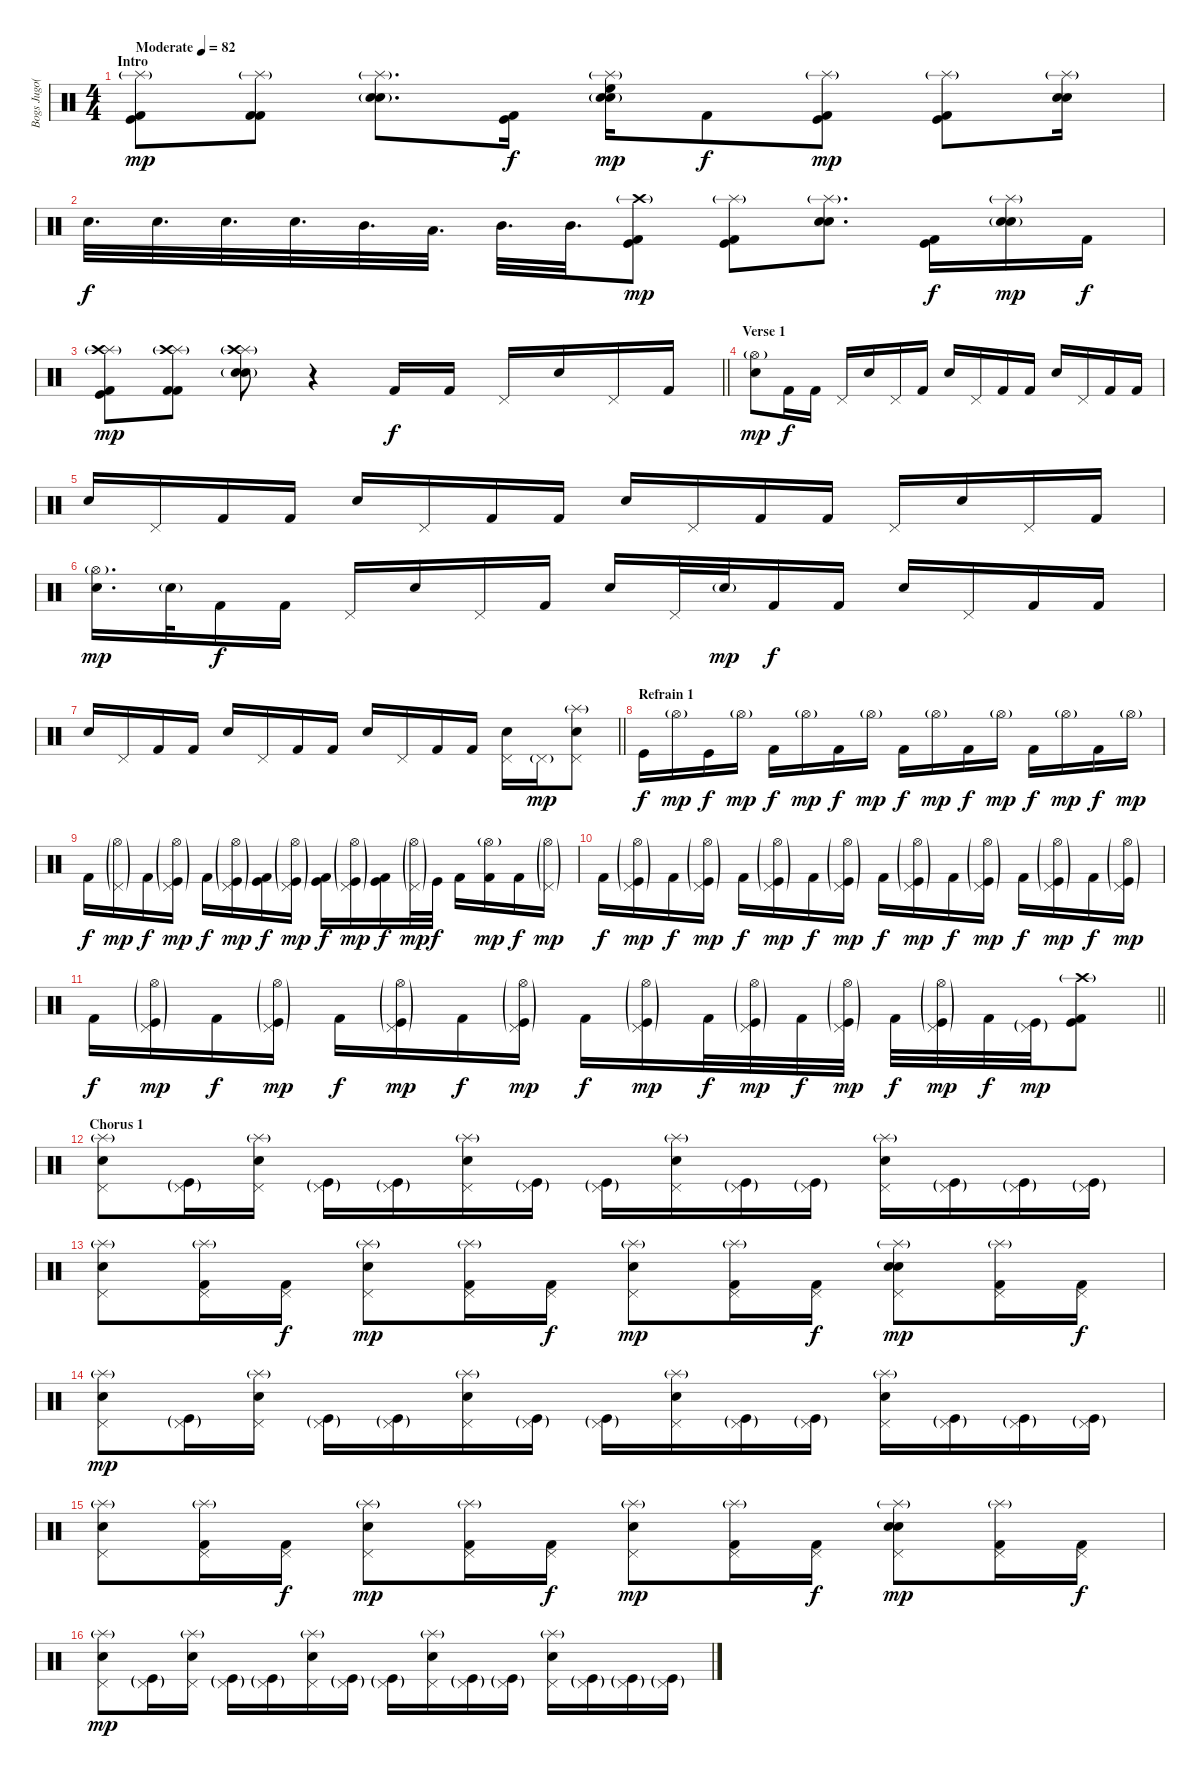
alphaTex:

\track ("Bogs Jugo(Drums)" "Bogs Jugo(") {instrument percussion}
\staff {score}
\articulation defaults
\ts (4 4)
\section ("" "Intro")
\tempo (82 "Moderate")
\clef neutral
\ks c
("Kick (hit) 2" "Kick (hit)" "Splash (hit)"{g}).8{dy mp} ("Kick (hit) 2" "Kick (hit) 2" "Splash (hit)"{g}).8 ("Electric Snare (hit)" "Snare (hit) 2"{g} "Splash (hit)"{g}).8{d} ("Kick (hit) 2" "Kick (hit)").16{dy f} ("Electric Snare (hit)" "Snare (hit) 2"{g} "Splash (hit)"{g} "High Floor Tom (hit)").16{bu 60 dy mp} "Kick (hit) 2".8{dy f} ("Kick (hit) 2" "Kick (hit)" "Splash (hit)"{g}).8{dy mp} ("Kick (hit) 2" "Kick (hit)" "Splash (hit)"{g}).8 ("Electric Snare (hit)" "Snare (hit) 2" "Splash (hit)"{g}).16 |
"Electric Snare (hit)".32{d dy f} "Electric Snare (hit)".32{d} "Electric Snare (hit)".32{d} "Electric Snare (hit)".32{d} "Mid Tom (hit)".32{d} "Low Tom (hit)".32{d} "Mid Tom (hit)".32{d} "Mid Tom (hit)".32{d} ("Kick (hit) 2" "Kick (hit)" "Crash high (hit)"{g}).8{dy mp} ("Kick (hit) 2" "Kick (hit)" "Splash (hit)"{g}).8 ("Electric Snare (hit)" "Electric Snare (hit)" "Splash (hit)"{g}).8{d} ("Kick (hit) 2" "Kick (hit)").16{dy f} ("Electric Snare (hit)" "Snare (hit) 2"{g} "Splash (hit)"{g}).16{bu 60 dy mp} "Kick (hit) 2".16{dy f} |
\barLineRight lightlight
("Kick (hit) 2" "Kick (hit)" "Splash (hit)"{g} "Crash high (hit)"{g}).8{dy mp} ("Kick (hit) 2" "Kick (hit) 2" "Splash (hit)"{g} "Crash high (hit)"{g}).8 ("Electric Snare (hit)" "Snare (hit) 2"{g} "Splash (hit)"{g} "Crash high (hit)"{g}).8 r.4 "Kick (hit) 2".16{dy f} "Kick (hit) 2".16 "Pedal Hi-Hat (hit)".16 "Electric Snare (hit)".16 "Pedal Hi-Hat (hit)".16 "Kick (hit) 2".16 |
\section ("" "Verse 1")
("Electric Snare (hit)" "Hi-Hat (open)"{g}).8{dy mp} "Kick (hit) 2".16{dy f} "Kick (hit) 2".16 "Pedal Hi-Hat (hit)".16 "Electric Snare (hit)".16 "Pedal Hi-Hat (hit)".16 "Kick (hit) 2".16 "Electric Snare (hit)".16 "Pedal Hi-Hat (hit)".16 "Kick (hit) 2".16 "Kick (hit) 2".16 "Electric Snare (hit)".16 "Pedal Hi-Hat (hit)".16 "Kick (hit) 2".16 "Kick (hit) 2".16 |
"Electric Snare (hit)".16 "Pedal Hi-Hat (hit)".16 "Kick (hit) 2".16 "Kick (hit) 2".16 "Electric Snare (hit)".16 "Pedal Hi-Hat (hit)".16 "Kick (hit) 2".16 "Kick (hit) 2".16 "Electric Snare (hit)".16 "Pedal Hi-Hat (hit)".16 "Kick (hit) 2".16 "Kick (hit) 2".16 "Pedal Hi-Hat (hit)".16 "Electric Snare (hit)".16 "Pedal Hi-Hat (hit)".16 "Kick (hit) 2".16 |
("Electric Snare (hit)" "Hi-Hat (open)"{g}).16{d dy mp} "Electric Snare (hit)"{g}.32 "Kick (hit) 2".16{dy f} "Kick (hit) 2".16 "Pedal Hi-Hat (hit)".16 "Electric Snare (hit)".16 "Pedal Hi-Hat (hit)".16 "Kick (hit) 2".16 "Electric Snare (hit)".16 "Pedal Hi-Hat (hit)".32 "Electric Snare (hit)"{g}.32{dy mp} "Kick (hit) 2".16{dy f} "Kick (hit) 2".16 "Electric Snare (hit)".16 "Pedal Hi-Hat (hit)".16 "Kick (hit) 2".16 "Kick (hit) 2".16 |
\barLineRight lightlight "Electric Snare (hit)".16 "Pedal Hi-Hat (hit)".16 "Kick (hit) 2".16 "Kick (hit) 2".16 "Electric Snare (hit)".16 "Pedal Hi-Hat (hit)".16 "Kick (hit) 2".16 "Kick (hit) 2".16 "Electric Snare (hit)".16 "Pedal Hi-Hat (hit)".16 "Kick (hit) 2".16 "Kick (hit) 2".16
("Pedal Hi-Hat (hit)" "Electric Snare (hit)").16 "Pedal Hi-Hat (hit)"{g}.16{dy mp} ("Pedal Hi-Hat (hit)" "Electric Snare (hit)" "Splash (hit)"{g}).8 |
\section ("" "Refrain 1")
"Kick (hit)".16{dy f} "Hi-Hat (open)"{g}.16{dy mp} "Kick (hit)".16{dy f} "Hi-Hat (open)"{g}.16{dy mp} "Kick (hit) 2".16{dy f} "Hi-Hat (open)"{g}.16{dy mp} "Kick (hit) 2".16{dy f} "Hi-Hat (open)"{g}.16{dy mp} "Kick (hit) 2".16{dy f} "Hi-Hat (open)"{g}.16{dy mp} "Kick (hit) 2".16{dy f} "Hi-Hat (open)"{g}.16{dy mp} "Kick (hit) 2".16{dy f} "Hi-Hat (open)"{g}.16{dy mp} "Kick (hit) 2".16{dy f} "Hi-Hat (open)"{g}.16{dy mp} |
"Kick (hit) 2".16{dy f} ("Pedal Hi-Hat (hit)"{g} "Hi-Hat (open)"{g}).16{dy mp} "Kick (hit) 2".16{dy f} ("Pedal Hi-Hat (hit)"{g} "Kick (hit)"{g} "Hi-Hat (open)"{g}).16{dy mp} "Kick (hit) 2".16{dy f} ("Pedal Hi-Hat (hit)"{g} "Kick (hit)"{g} "Hi-Hat (open)"{g}).16{dy mp} ("Kick (hit) 2" "Kick (hit)").16{dy f} ("Pedal Hi-Hat (hit)"{g} "Kick (hit)"{g} "Hi-Hat (open)"{g}).16{dy mp} ("Kick (hit) 2" "Kick (hit)").16{dy f} ("Pedal Hi-Hat (hit)"{g} "Kick (hit)"{g} "Hi-Hat (open)"{g}).16{dy mp} ("Kick (hit) 2" "Kick (hit)").16{dy f} ("Pedal Hi-Hat (hit)"{g} "Hi-Hat (open)"{g}).32{dy mp} "Kick (hit)".32{dy f} "Kick (hit) 2".16 ("Kick (hit) 2" "Hi-Hat (open)"{g}).16{dy mp} "Kick (hit) 2".16{dy f} ("Pedal Hi-Hat (hit)"{g} "Hi-Hat (open)"{g}).16{dy mp} |
"Kick (hit) 2".16{dy f} ("Pedal Hi-Hat (hit)"{g} "Kick (hit)"{g} "Hi-Hat (open)"{g}).16{dy mp} "Kick (hit) 2".16{dy f} ("Pedal Hi-Hat (hit)"{g} "Kick (hit)"{g} "Hi-Hat (open)"{g}).16{dy mp} "Kick (hit) 2".16{dy f} ("Pedal Hi-Hat (hit)"{g} "Kick (hit)"{g} "Hi-Hat (open)"{g}).16{dy mp} "Kick (hit) 2".16{dy f} ("Pedal Hi-Hat (hit)"{g} "Kick (hit)"{g} "Hi-Hat (open)"{g}).16{dy mp} "Kick (hit) 2".16{dy f} ("Pedal Hi-Hat (hit)"{g} "Kick (hit)"{g} "Hi-Hat (open)"{g}).16{dy mp} "Kick (hit) 2".16{dy f} ("Pedal Hi-Hat (hit)"{g} "Kick (hit)"{g} "Hi-Hat (open)"{g}).16{dy mp} "Kick (hit) 2".16{dy f} ("Pedal Hi-Hat (hit)"{g} "Kick (hit)"{g} "Hi-Hat (open)"{g}).16{dy mp} "Kick (hit) 2".16{dy f} ("Pedal Hi-Hat (hit)"{g} "Kick (hit)"{g} "Hi-Hat (open)"{g}).16{dy mp} |
\barLineRight lightlight "Kick (hit) 2".16{dy f}
("Pedal Hi-Hat (hit)"{g} "Kick (hit)"{g} "Hi-Hat (open)"{g}).16{dy mp} "Kick (hit) 2".16{dy f} ("Pedal Hi-Hat (hit)"{g} "Kick (hit)"{g} "Hi-Hat (open)"{g}).16{dy mp} "Kick (hit) 2".16{dy f} ("Pedal Hi-Hat (hit)"{g} "Kick (hit)"{g} "Hi-Hat (open)"{g}).16{dy mp} "Kick (hit) 2".16{dy f} ("Pedal Hi-Hat (hit)"{g} "Kick (hit)"{g} "Hi-Hat (open)"{g}).16{dy mp} "Kick (hit) 2".16{dy f} ("Pedal Hi-Hat (hit)"{g} "Kick (hit)"{g} "Hi-Hat (open)"{g}).16{dy mp} "Kick (hit) 2".32{dy f} ("Pedal Hi-Hat (hit)"{g} "Kick (hit)"{g} "Hi-Hat (open)"{g}).32{dy mp} "Kick (hit) 2".32{dy f} ("Pedal Hi-Hat (hit)"{g} "Kick (hit)"{g} "Hi-Hat (open)"{g}).32{dy mp} "Kick (hit) 2".32{dy f} ("Pedal Hi-Hat (hit)"{g} "Kick (hit)"{g} "Hi-Hat (open)"{g}).32{dy mp} "Kick (hit) 2".32{dy f} ("Pedal Hi-Hat (hit)"{g} "Kick (hit)"{g}).32{dy mp} ("Crash high (hit)"{g} "Kick (hit) 2" "Kick (hit)").8 |
\section ("" "Chorus 1")
("Pedal Hi-Hat (hit)" "Electric Snare (hit)" "Splash (hit)"{g}).8 ("Pedal Hi-Hat (hit)"{g} "Kick (hit)"{g}).16 ("Pedal Hi-Hat (hit)" "Electric Snare (hit)" "Splash (hit)"{g}).16 ("Pedal Hi-Hat (hit)"{g} "Kick (hit)"{g}).16 ("Pedal Hi-Hat (hit)"{g} "Kick (hit)"{g}).16 ("Pedal Hi-Hat (hit)" "Electric Snare (hit)" "Splash (hit)"{g}).16 ("Pedal Hi-Hat (hit)"{g} "Kick (hit)"{g}).16 ("Pedal Hi-Hat (hit)"{g} "Kick (hit)"{g}).16 ("Pedal Hi-Hat (hit)" "Electric Snare (hit)" "Splash (hit)"{g}).16 ("Pedal Hi-Hat (hit)"{g} "Kick (hit)"{g}).16 ("Pedal Hi-Hat (hit)"{g} "Kick (hit)"{g}).16 ("Pedal Hi-Hat (hit)" "Electric Snare (hit)" "Splash (hit)"{g}).16 ("Pedal Hi-Hat (hit)"{g} "Kick (hit)"{g}).16 ("Pedal Hi-Hat (hit)"{g} "Kick (hit)"{g}).16 ("Pedal Hi-Hat (hit)"{g} "Kick (hit)"{g}).16 |
("Pedal Hi-Hat (hit)" "Electric Snare (hit)" "Splash (hit)"{g}).8 ("Pedal Hi-Hat (hit)" "Kick (hit) 2" "Splash (hit)"{g}).16 ("Pedal Hi-Hat (hit)" "Kick (hit) 2").16{dy f} ("Pedal Hi-Hat (hit)" "Electric Snare (hit)" "Splash (hit)"{g}).8{dy mp} ("Pedal Hi-Hat (hit)" "Kick (hit) 2" "Splash (hit)"{g}).16 ("Pedal Hi-Hat (hit)" "Kick (hit) 2").16{dy f} ("Pedal Hi-Hat (hit)" "Electric Snare (hit)" "Splash (hit)"{g}).8{dy mp} ("Pedal Hi-Hat (hit)" "Kick (hit) 2" "Splash (hit)"{g}).16 ("Pedal Hi-Hat (hit)" "Kick (hit) 2").16{dy f} ("Pedal Hi-Hat (hit)" "Electric Snare (hit)" "Electric Snare (hit)" "Splash (hit)"{g}).8{dy mp} ("Pedal Hi-Hat (hit)" "Kick (hit) 2" "Splash (hit)"{g}).16 ("Pedal Hi-Hat (hit)" "Kick (hit) 2").16{dy f} |
("Pedal Hi-Hat (hit)" "Electric Snare (hit)" "Splash (hit)"{g}).8{dy mp} ("Pedal Hi-Hat (hit)"{g} "Kick (hit)"{g}).16 ("Pedal Hi-Hat (hit)" "Electric Snare (hit)" "Splash (hit)"{g}).16 ("Pedal Hi-Hat (hit)"{g} "Kick (hit)"{g}).16 ("Pedal Hi-Hat (hit)"{g} "Kick (hit)"{g}).16 ("Pedal Hi-Hat (hit)" "Electric Snare (hit)" "Splash (hit)"{g}).16 ("Pedal Hi-Hat (hit)"{g} "Kick (hit)"{g}).16 ("Pedal Hi-Hat (hit)"{g} "Kick (hit)"{g}).16 ("Pedal Hi-Hat (hit)" "Electric Snare (hit)" "Splash (hit)"{g}).16 ("Pedal Hi-Hat (hit)"{g} "Kick (hit)"{g}).16 ("Pedal Hi-Hat (hit)"{g} "Kick (hit)"{g}).16 ("Pedal Hi-Hat (hit)" "Electric Snare (hit)" "Splash (hit)"{g}).16 ("Pedal Hi-Hat (hit)"{g} "Kick (hit)"{g}).16 ("Pedal Hi-Hat (hit)"{g} "Kick (hit)"{g}).16 ("Pedal Hi-Hat (hit)"{g} "Kick (hit)"{g}).16 |
("Pedal Hi-Hat (hit)" "Electric Snare (hit)" "Splash (hit)"{g}).8 ("Pedal Hi-Hat (hit)" "Kick (hit) 2" "Splash (hit)"{g}).16 ("Pedal Hi-Hat (hit)" "Kick (hit) 2").16{dy f} ("Pedal Hi-Hat (hit)" "Electric Snare (hit)" "Splash (hit)"{g}).8{dy mp} ("Pedal Hi-Hat (hit)" "Kick (hit) 2" "Splash (hit)"{g}).16 ("Pedal Hi-Hat (hit)" "Kick (hit) 2").16{dy f} ("Pedal Hi-Hat (hit)" "Electric Snare (hit)" "Splash (hit)"{g}).8{dy mp} ("Pedal Hi-Hat (hit)" "Kick (hit) 2" "Splash (hit)"{g}).16 ("Pedal Hi-Hat (hit)" "Kick (hit) 2").16{dy f} ("Pedal Hi-Hat (hit)" "Electric Snare (hit)" "Electric Snare (hit)" "Splash (hit)"{g}).8{dy mp} ("Pedal Hi-Hat (hit)" "Kick (hit) 2" "Splash (hit)"{g}).16 ("Pedal Hi-Hat (hit)" "Kick (hit) 2").16{dy f} |
("Pedal Hi-Hat (hit)" "Electric Snare (hit)" "Splash (hit)"{g}).8{dy mp} ("Pedal Hi-Hat (hit)"{g} "Kick (hit)"{g}).16 ("Pedal Hi-Hat (hit)" "Electric Snare (hit)" "Splash (hit)"{g}).16 ("Pedal Hi-Hat (hit)"{g} "Kick (hit)"{g}).16 ("Pedal Hi-Hat (hit)"{g} "Kick (hit)"{g}).16 ("Pedal Hi-Hat (hit)" "Electric Snare (hit)" "Splash (hit)"{g}).16 ("Pedal Hi-Hat (hit)"{g} "Kick (hit)"{g}).16 ("Pedal Hi-Hat (hit)"{g} "Kick (hit)"{g}).16 ("Pedal Hi-Hat (hit)" "Electric Snare (hit)" "Splash (hit)"{g}).16 ("Pedal Hi-Hat (hit)"{g} "Kick (hit)"{g}).16 ("Pedal Hi-Hat (hit)"{g} "Kick (hit)"{g}).16 ("Pedal Hi-Hat (hit)" "Electric Snare (hit)" "Splash (hit)"{g}).16 ("Pedal Hi-Hat (hit)"{g} "Kick (hit)"{g}).16 ("Pedal Hi-Hat (hit)"{g} "Kick (hit)"{g}).16 ("Pedal Hi-Hat (hit)"{g} "Kick (hit)"{g}).16
